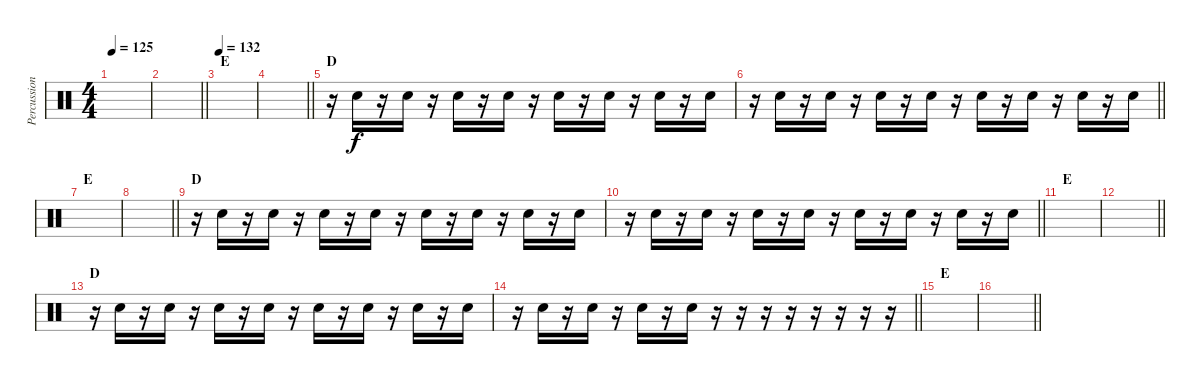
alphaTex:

\track ("Percussion" "Percussion") {instrument percussion}
\staff {score}
\articulation defaults
\ts (4 4)
\tempo 125
\clef neutral
\ks c
|
\barLineRight lightlight
|
\section ("" "E")
\tempo 132
|
\barLineRight lightlight
|
\section ("" "D")
r.16 "Electric Snare (hit)".16 r.16 "Electric Snare (hit)".16 r.16 "Electric Snare (hit)".16 r.16 "Electric Snare (hit)".16 r.16 "Electric Snare (hit)".16 r.16 "Electric Snare (hit)".16 r.16 "Electric Snare (hit)".16 r.16 "Electric Snare (hit)".16 |
\barLineRight lightlight
r.16 "Electric Snare (hit)".16 r.16 "Electric Snare (hit)".16 r.16 "Electric Snare (hit)".16 r.16 "Electric Snare (hit)".16 r.16 "Electric Snare (hit)".16 r.16 "Electric Snare (hit)".16 r.16 "Electric Snare (hit)".16 r.16 "Electric Snare (hit)".16 |
\section ("" "E")
|
\barLineRight lightlight
|
\section ("" "D")
r.16 "Electric Snare (hit)".16 r.16 "Electric Snare (hit)".16 r.16 "Electric Snare (hit)".16 r.16 "Electric Snare (hit)".16 r.16 "Electric Snare (hit)".16 r.16 "Electric Snare (hit)".16 r.16 "Electric Snare (hit)".16 r.16 "Electric Snare (hit)".16 |
\barLineRight lightlight
r.16 "Electric Snare (hit)".16 r.16 "Electric Snare (hit)".16 r.16 "Electric Snare (hit)".16 r.16 "Electric Snare (hit)".16 r.16 "Electric Snare (hit)".16 r.16 "Electric Snare (hit)".16 r.16 "Electric Snare (hit)".16 r.16 "Electric Snare (hit)".16 |
\section ("" "E")
|
\barLineRight lightlight
|
\section ("" "D")
r.16 "Electric Snare (hit)".16 r.16 "Electric Snare (hit)".16 r.16 "Electric Snare (hit)".16 r.16 "Electric Snare (hit)".16 r.16 "Electric Snare (hit)".16 r.16 "Electric Snare (hit)".16 r.16 "Electric Snare (hit)".16 r.16 "Electric Snare (hit)".16 |
\barLineRight lightlight
r.16 "Electric Snare (hit)".16 r.16 "Electric Snare (hit)".16 r.16 "Electric Snare (hit)".16 r.16 "Electric Snare (hit)".16 r.16 r.16 r.16 r.16 r.16 r.16 r.16 r.16 |
\section ("" "E")
|
\barLineRight lightlight
